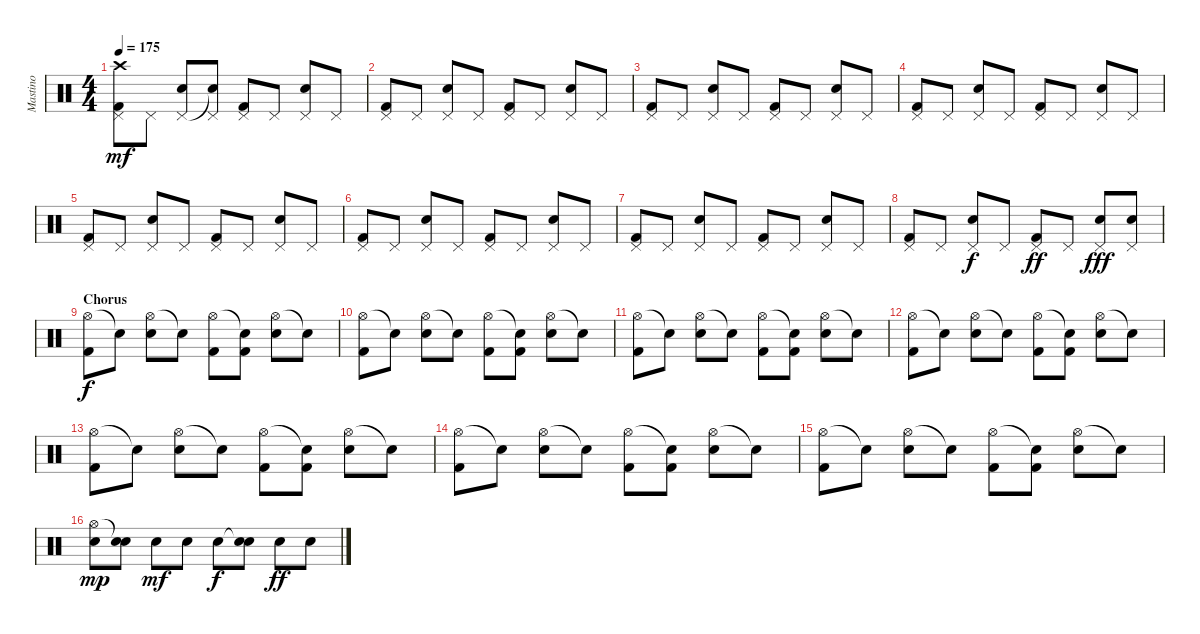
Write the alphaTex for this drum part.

\track ("Mastino" "Mastino") {instrument percussion}
\staff {score}
\articulation defaults
\ts (4 4)
\section ("" "")
\tempo 175
\clef neutral
\ks c
("Crash high (hit)" "Pedal Hi-Hat (hit)" "Kick (hit) 2").8{dy mf} "Pedal Hi-Hat (hit)".8 ("Pedal Hi-Hat (hit)" "Electric Snare (hit)").8 ("Snare (hit)"{t} "Pedal Hi-Hat (hit)").8 ("Pedal Hi-Hat (hit)" "Kick (hit) 2").8 "Pedal Hi-Hat (hit)".8 ("Pedal Hi-Hat (hit)" "Electric Snare (hit)").8 "Pedal Hi-Hat (hit)".8 |
("Pedal Hi-Hat (hit)" "Kick (hit) 2").8 "Pedal Hi-Hat (hit)".8 ("Pedal Hi-Hat (hit)" "Electric Snare (hit)").8 "Pedal Hi-Hat (hit)".8 ("Pedal Hi-Hat (hit)" "Kick (hit) 2").8 "Pedal Hi-Hat (hit)".8 ("Pedal Hi-Hat (hit)" "Electric Snare (hit)").8 "Pedal Hi-Hat (hit)".8 |
("Pedal Hi-Hat (hit)" "Kick (hit) 2").8 "Pedal Hi-Hat (hit)".8 ("Pedal Hi-Hat (hit)" "Electric Snare (hit)").8 "Pedal Hi-Hat (hit)".8 ("Pedal Hi-Hat (hit)" "Kick (hit) 2").8 "Pedal Hi-Hat (hit)".8 ("Pedal Hi-Hat (hit)" "Electric Snare (hit)").8 "Pedal Hi-Hat (hit)".8 |
("Pedal Hi-Hat (hit)" "Kick (hit) 2").8 "Pedal Hi-Hat (hit)".8 ("Pedal Hi-Hat (hit)" "Electric Snare (hit)").8 "Pedal Hi-Hat (hit)".8 ("Pedal Hi-Hat (hit)" "Kick (hit) 2").8 "Pedal Hi-Hat (hit)".8 ("Pedal Hi-Hat (hit)" "Electric Snare (hit)").8 "Pedal Hi-Hat (hit)".8 |
("Pedal Hi-Hat (hit)" "Kick (hit) 2").8 "Pedal Hi-Hat (hit)".8 ("Pedal Hi-Hat (hit)" "Electric Snare (hit)").8 "Pedal Hi-Hat (hit)".8 ("Pedal Hi-Hat (hit)" "Kick (hit) 2").8 "Pedal Hi-Hat (hit)".8 ("Pedal Hi-Hat (hit)" "Electric Snare (hit)").8 "Pedal Hi-Hat (hit)".8 |
("Pedal Hi-Hat (hit)" "Kick (hit) 2").8 "Pedal Hi-Hat (hit)".8 ("Pedal Hi-Hat (hit)" "Electric Snare (hit)").8 "Pedal Hi-Hat (hit)".8 ("Pedal Hi-Hat (hit)" "Kick (hit) 2").8 "Pedal Hi-Hat (hit)".8 ("Pedal Hi-Hat (hit)" "Electric Snare (hit)").8 "Pedal Hi-Hat (hit)".8 |
("Pedal Hi-Hat (hit)" "Kick (hit) 2").8 "Pedal Hi-Hat (hit)".8 ("Pedal Hi-Hat (hit)" "Electric Snare (hit)").8 "Pedal Hi-Hat (hit)".8 ("Pedal Hi-Hat (hit)" "Kick (hit) 2").8 "Pedal Hi-Hat (hit)".8 ("Pedal Hi-Hat (hit)" "Electric Snare (hit)").8 "Pedal Hi-Hat (hit)".8 |
("Pedal Hi-Hat (hit)" "Kick (hit) 2").8 "Pedal Hi-Hat (hit)".8 ("Pedal Hi-Hat (hit)" "Electric Snare (hit)").8{dy f} "Pedal Hi-Hat (hit)".8 ("Pedal Hi-Hat (hit)" "Kick (hit) 2").8{dy ff} "Pedal Hi-Hat (hit)".8 ("Pedal Hi-Hat (hit)" "Electric Snare (hit)").8{dy fff} ("Pedal Hi-Hat (hit)" "Electric Snare (hit)").8 |
\section ("" "Chorus")
("Hi-Hat (open)" "Kick (hit) 2").8{dy f} "Snare (hit)"{t}.8 ("Hi-Hat (open)" "Electric Snare (hit)").8 "Snare (hit)"{t}.8 ("Hi-Hat (open)" "Kick (hit) 2").8 ("Snare (hit)"{t} "Kick (hit) 2").8 ("Hi-Hat (open)" "Electric Snare (hit)").8 "Snare (hit)"{t}.8 |
("Hi-Hat (open)" "Kick (hit) 2").8 "Snare (hit)"{t}.8 ("Hi-Hat (open)" "Electric Snare (hit)").8 "Snare (hit)"{t}.8 ("Hi-Hat (open)" "Kick (hit) 2").8 ("Snare (hit)"{t} "Kick (hit) 2").8 ("Hi-Hat (open)" "Electric Snare (hit)").8 "Snare (hit)"{t}.8 |
("Hi-Hat (open)" "Kick (hit) 2").8 "Snare (hit)"{t}.8 ("Hi-Hat (open)" "Electric Snare (hit)").8 "Snare (hit)"{t}.8 ("Hi-Hat (open)" "Kick (hit) 2").8 ("Snare (hit)"{t} "Kick (hit) 2").8 ("Hi-Hat (open)" "Electric Snare (hit)").8 "Snare (hit)"{t}.8 |
("Hi-Hat (open)" "Kick (hit) 2").8 "Snare (hit)"{t}.8 ("Hi-Hat (open)" "Electric Snare (hit)").8 "Snare (hit)"{t}.8 ("Hi-Hat (open)" "Kick (hit) 2").8 ("Snare (hit)"{t} "Kick (hit) 2").8 ("Hi-Hat (open)" "Electric Snare (hit)").8 "Snare (hit)"{t}.8 |
("Hi-Hat (open)" "Kick (hit) 2").8 "Snare (hit)"{t}.8 ("Hi-Hat (open)" "Electric Snare (hit)").8 "Snare (hit)"{t}.8 ("Hi-Hat (open)" "Kick (hit) 2").8 ("Snare (hit)"{t} "Kick (hit) 2").8 ("Hi-Hat (open)" "Electric Snare (hit)").8 "Snare (hit)"{t}.8 |
("Hi-Hat (open)" "Kick (hit) 2").8 "Snare (hit)"{t}.8 ("Hi-Hat (open)" "Electric Snare (hit)").8 "Snare (hit)"{t}.8 ("Hi-Hat (open)" "Kick (hit) 2").8 ("Snare (hit)"{t} "Kick (hit) 2").8 ("Hi-Hat (open)" "Electric Snare (hit)").8 "Snare (hit)"{t}.8 |
("Hi-Hat (open)" "Kick (hit) 2").8 "Snare (hit)"{t}.8 ("Hi-Hat (open)" "Electric Snare (hit)").8 "Snare (hit)"{t}.8 ("Hi-Hat (open)" "Kick (hit) 2").8 ("Snare (hit)"{t} "Kick (hit) 2").8 ("Hi-Hat (open)" "Electric Snare (hit)").8 "Snare (hit)"{t}.8 |
("Hi-Hat (open)" "Electric Snare (hit)").8{dy mp} ("Snare (hit)"{t} "Electric Snare (hit)").8 "Electric Snare (hit)".8{dy mf} "Electric Snare (hit)".8 "Electric Snare (hit)".8{dy f} ("Snare (hit)"{t} "Electric Snare (hit)").8 "Electric Snare (hit)".8{dy ff} "Electric Snare (hit)".8
